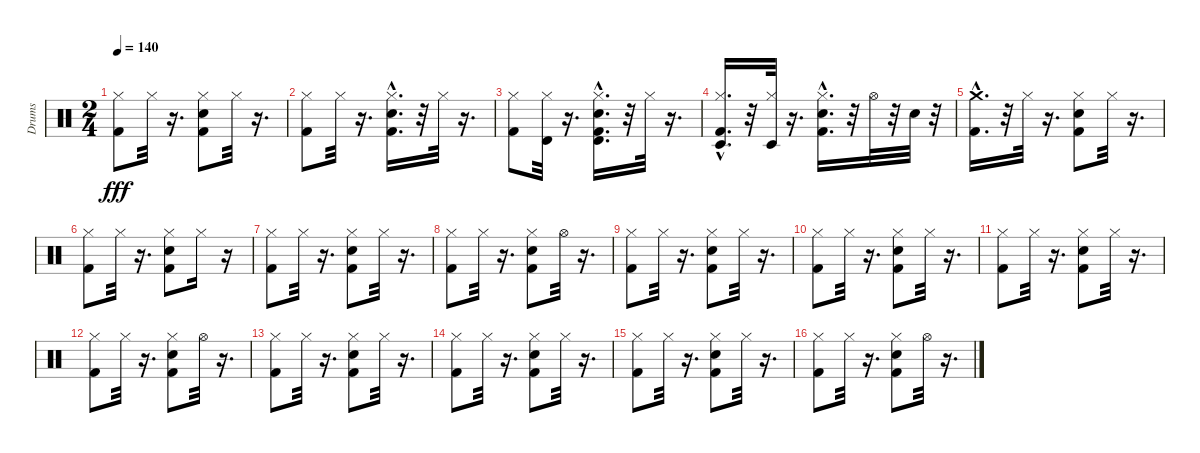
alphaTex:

\track ("Drums" "Drums") {instrument percussion}
\staff {score}
\articulation defaults
\ts (2 4)
\tempo 140
\clef neutral
\ks c
("Kick (hit) 2" "Hi-Hat (closed)").8{dy fff} "Hi-Hat (closed)".32 r.16{d} ("Snare (hit) 2" "Kick (hit) 2" "Hi-Hat (closed)").8 "Hi-Hat (closed)".32 r.16{d} |
("Kick (hit) 2" "Hi-Hat (closed)").8 "Hi-Hat (closed)".32 r.16{d} ("Hi-Hat (closed)" "Snare (hit) 2"{hac} "Kick (hit) 2"{hac}).16{d} r.32 "Hi-Hat (closed)".32 r.16{d} |
("Kick (hit) 2" "Hi-Hat (closed)").8 ("Timbale high (hit)" "Hi-Hat (closed)").32 r.16{d} ("Snare (hit) 2"{hac} "Hi-Hat (closed)" "Kick (hit) 2"{hac} "Timbale high (hit)").16{d} r.32 "Hi-Hat (closed)".32 r.16{d} |
("Kick (hit) 2"{hac} "Timbale low (hit)" "Hi-Hat (closed)").16{d} r.32 ("Timbale low (hit)" "Hi-Hat (closed)").32 r.16{d} ("Snare (hit) 2"{hac} "Kick (hit) 2"{hac} "Hi-Hat (closed)").16{d} r.32 "Hi-Hat (open)".32 r.32 "Snare (hit) 2".32 r.32 |
("Kick (hit) 2"{hac} "Crash medium (hit)").16{d} r.32 "Hi-Hat (closed)".32 r.16{d} ("Hi-Hat (closed)" "Kick (hit) 2" "Snare (hit) 2").8 "Hi-Hat (closed)".32 r.16{d} |
("Kick (hit) 2" "Hi-Hat (closed)").8 "Hi-Hat (closed)".32 r.16{d} ("Snare (hit) 2" "Kick (hit) 2" "Hi-Hat (closed)").8 "Hi-Hat (closed)".16 r.16 |
("Kick (hit) 2" "Hi-Hat (closed)").8 "Hi-Hat (closed)".32 r.16{d} ("Hi-Hat (closed)" "Snare (hit) 2" "Kick (hit) 2").8 "Hi-Hat (closed)".32 r.16{d} |
("Kick (hit) 2" "Hi-Hat (closed)").8 "Hi-Hat (closed)".32 r.16{d} ("Snare (hit) 2" "Hi-Hat (closed)" "Kick (hit) 2").8 "Hi-Hat (open)".32 r.16{d} |
("Kick (hit) 2" "Hi-Hat (closed)").8 "Hi-Hat (closed)".32 r.16{d} ("Snare (hit) 2" "Kick (hit) 2" "Hi-Hat (closed)").8 "Hi-Hat (closed)".32 r.16{d} |
("Kick (hit) 2" "Hi-Hat (closed)").8 "Hi-Hat (closed)".32 r.16{d} ("Snare (hit) 2" "Kick (hit) 2" "Hi-Hat (closed)").8 "Hi-Hat (closed)".32 r.16{d} |
("Kick (hit) 2" "Hi-Hat (closed)").8 "Hi-Hat (closed)".32 r.16{d} ("Snare (hit) 2" "Kick (hit) 2" "Hi-Hat (closed)").8 "Hi-Hat (closed)".32 r.16{d} |
("Kick (hit) 2" "Hi-Hat (closed)").8 "Hi-Hat (closed)".32 r.16{d} ("Hi-Hat (closed)" "Snare (hit) 2" "Kick (hit) 2").8 "Hi-Hat (open)".32 r.16{d} |
("Kick (hit) 2" "Hi-Hat (closed)").8 "Hi-Hat (closed)".32 r.16{d} ("Snare (hit) 2" "Kick (hit) 2" "Hi-Hat (closed)").8 "Hi-Hat (closed)".32 r.16{d} |
("Kick (hit) 2" "Hi-Hat (closed)").8 "Hi-Hat (closed)".32 r.16{d} ("Snare (hit) 2" "Kick (hit) 2" "Hi-Hat (closed)").8 "Hi-Hat (closed)".32 r.16{d} |
("Kick (hit) 2" "Hi-Hat (closed)").8 "Hi-Hat (closed)".32 r.16{d} ("Snare (hit) 2" "Kick (hit) 2" "Hi-Hat (closed)").8 "Hi-Hat (closed)".32 r.16{d} |
("Kick (hit) 2" "Hi-Hat (closed)").8 "Hi-Hat (closed)".32 r.16{d} ("Snare (hit) 2" "Kick (hit) 2" "Hi-Hat (closed)").8 "Hi-Hat (open)".32 r.16{d}
